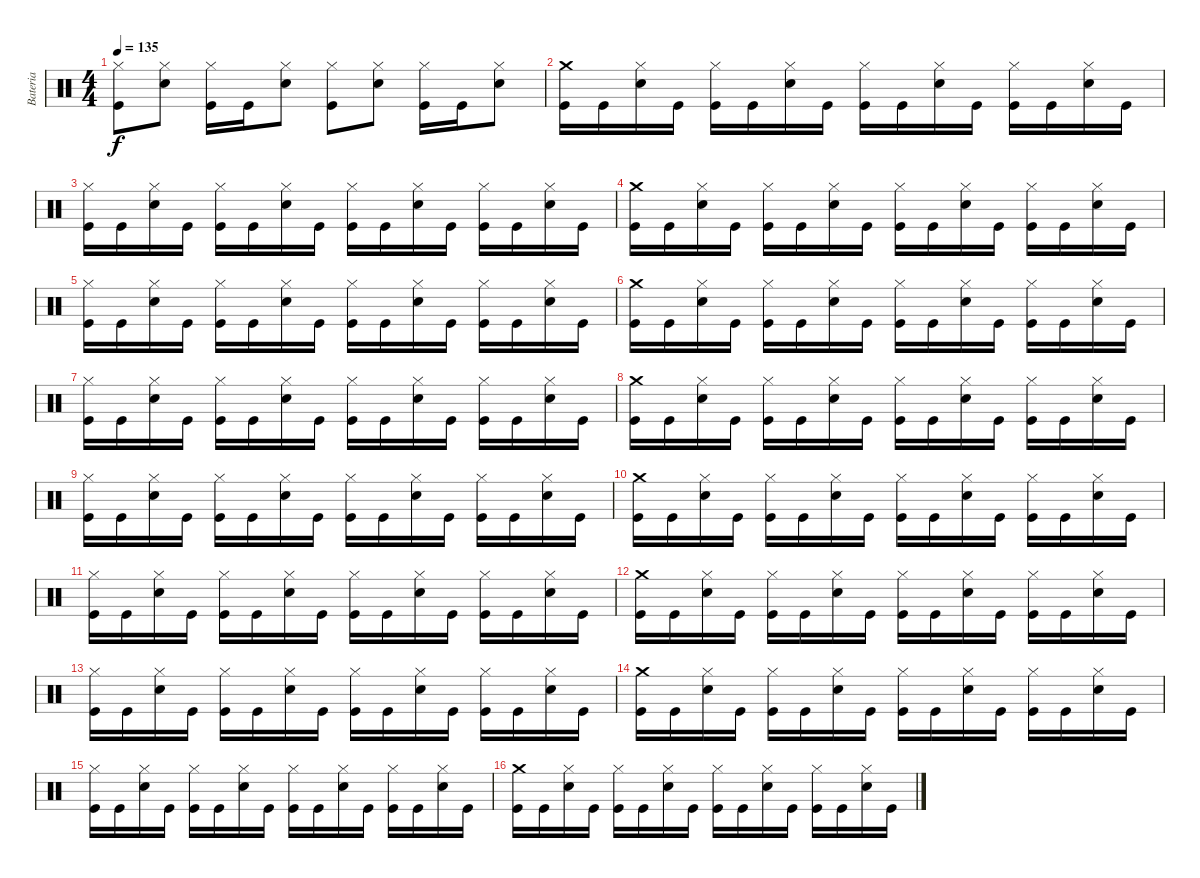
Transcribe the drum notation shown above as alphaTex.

\track ("Bateria" "Bateria") {instrument percussion}
\staff {score}
\articulation defaults
\ts (4 4)
\tempo 135
\clef neutral
\ks c
("Kick (hit)" "Hi-Hat (closed)").8{dy f} ("Snare (hit) 2" "Hi-Hat (closed)").8 ("Kick (hit)" "Hi-Hat (closed)").16 "Kick (hit)".16 ("Snare (hit) 2" "Hi-Hat (closed)").8 ("Kick (hit)" "Hi-Hat (closed)").8 ("Snare (hit) 2" "Hi-Hat (closed)").8 ("Kick (hit)" "Hi-Hat (closed)").16 "Kick (hit)".16 ("Snare (hit) 2" "Hi-Hat (closed)").8 |
("Kick (hit)" "Crash medium (hit)").16 "Kick (hit)".16 ("Snare (hit) 2" "Hi-Hat (closed)").16 "Kick (hit)".16 ("Kick (hit)" "Hi-Hat (closed)").16 "Kick (hit)".16 ("Snare (hit) 2" "Hi-Hat (closed)").16 "Kick (hit)".16 ("Kick (hit)" "Hi-Hat (closed)").16 "Kick (hit)".16 ("Snare (hit) 2" "Hi-Hat (closed)").16 "Kick (hit)".16 ("Kick (hit)" "Hi-Hat (closed)").16 "Kick (hit)".16 ("Snare (hit) 2" "Hi-Hat (closed)").16 "Kick (hit)".16 |
("Kick (hit)" "Hi-Hat (closed)").16 "Kick (hit)".16 ("Snare (hit) 2" "Hi-Hat (closed)").16 "Kick (hit)".16 ("Kick (hit)" "Hi-Hat (closed)").16 "Kick (hit)".16 ("Snare (hit) 2" "Hi-Hat (closed)").16 "Kick (hit)".16 ("Kick (hit)" "Hi-Hat (closed)").16 "Kick (hit)".16 ("Snare (hit) 2" "Hi-Hat (closed)").16 "Kick (hit)".16 ("Kick (hit)" "Hi-Hat (closed)").16 "Kick (hit)".16 ("Snare (hit) 2" "Hi-Hat (closed)").16 "Kick (hit)".16 |
("Kick (hit)" "Crash medium (hit)").16 "Kick (hit)".16 ("Snare (hit) 2" "Hi-Hat (closed)").16 "Kick (hit)".16 ("Kick (hit)" "Hi-Hat (closed)").16 "Kick (hit)".16 ("Snare (hit) 2" "Hi-Hat (closed)").16 "Kick (hit)".16 ("Kick (hit)" "Hi-Hat (closed)").16 "Kick (hit)".16 ("Snare (hit) 2" "Hi-Hat (closed)").16 "Kick (hit)".16 ("Kick (hit)" "Hi-Hat (closed)").16 "Kick (hit)".16 ("Snare (hit) 2" "Hi-Hat (closed)").16 "Kick (hit)".16 |
("Kick (hit)" "Hi-Hat (closed)").16 "Kick (hit)".16 ("Snare (hit) 2" "Hi-Hat (closed)").16 "Kick (hit)".16 ("Kick (hit)" "Hi-Hat (closed)").16 "Kick (hit)".16 ("Snare (hit) 2" "Hi-Hat (closed)").16 "Kick (hit)".16 ("Kick (hit)" "Hi-Hat (closed)").16 "Kick (hit)".16 ("Snare (hit) 2" "Hi-Hat (closed)").16 "Kick (hit)".16 ("Kick (hit)" "Hi-Hat (closed)").16 "Kick (hit)".16 ("Snare (hit) 2" "Hi-Hat (closed)").16 "Kick (hit)".16 |
("Kick (hit)" "Crash medium (hit)").16 "Kick (hit)".16 ("Snare (hit) 2" "Hi-Hat (closed)").16 "Kick (hit)".16 ("Kick (hit)" "Hi-Hat (closed)").16 "Kick (hit)".16 ("Snare (hit) 2" "Hi-Hat (closed)").16 "Kick (hit)".16 ("Kick (hit)" "Hi-Hat (closed)").16 "Kick (hit)".16 ("Snare (hit) 2" "Hi-Hat (closed)").16 "Kick (hit)".16 ("Kick (hit)" "Hi-Hat (closed)").16 "Kick (hit)".16 ("Snare (hit) 2" "Hi-Hat (closed)").16 "Kick (hit)".16 |
("Kick (hit)" "Hi-Hat (closed)").16 "Kick (hit)".16 ("Snare (hit) 2" "Hi-Hat (closed)").16 "Kick (hit)".16 ("Kick (hit)" "Hi-Hat (closed)").16 "Kick (hit)".16 ("Snare (hit) 2" "Hi-Hat (closed)").16 "Kick (hit)".16 ("Kick (hit)" "Hi-Hat (closed)").16 "Kick (hit)".16 ("Snare (hit) 2" "Hi-Hat (closed)").16 "Kick (hit)".16 ("Kick (hit)" "Hi-Hat (closed)").16 "Kick (hit)".16 ("Snare (hit) 2" "Hi-Hat (closed)").16 "Kick (hit)".16 |
("Kick (hit)" "Crash medium (hit)").16 "Kick (hit)".16 ("Snare (hit) 2" "Hi-Hat (closed)").16 "Kick (hit)".16 ("Kick (hit)" "Hi-Hat (closed)").16 "Kick (hit)".16 ("Snare (hit) 2" "Hi-Hat (closed)").16 "Kick (hit)".16 ("Kick (hit)" "Hi-Hat (closed)").16 "Kick (hit)".16 ("Snare (hit) 2" "Hi-Hat (closed)").16 "Kick (hit)".16 ("Kick (hit)" "Hi-Hat (closed)").16 "Kick (hit)".16 ("Snare (hit) 2" "Hi-Hat (closed)").16 "Kick (hit)".16 |
("Kick (hit)" "Hi-Hat (closed)").16 "Kick (hit)".16 ("Snare (hit) 2" "Hi-Hat (closed)").16 "Kick (hit)".16 ("Kick (hit)" "Hi-Hat (closed)").16 "Kick (hit)".16 ("Snare (hit) 2" "Hi-Hat (closed)").16 "Kick (hit)".16 ("Kick (hit)" "Hi-Hat (closed)").16 "Kick (hit)".16 ("Snare (hit) 2" "Hi-Hat (closed)").16 "Kick (hit)".16 ("Kick (hit)" "Hi-Hat (closed)").16 "Kick (hit)".16 ("Snare (hit) 2" "Hi-Hat (closed)").16 "Kick (hit)".16 |
("Kick (hit)" "Crash medium (hit)").16 "Kick (hit)".16 ("Snare (hit) 2" "Hi-Hat (closed)").16 "Kick (hit)".16 ("Kick (hit)" "Hi-Hat (closed)").16 "Kick (hit)".16 ("Snare (hit) 2" "Hi-Hat (closed)").16 "Kick (hit)".16 ("Kick (hit)" "Hi-Hat (closed)").16 "Kick (hit)".16 ("Snare (hit) 2" "Hi-Hat (closed)").16 "Kick (hit)".16 ("Kick (hit)" "Hi-Hat (closed)").16 "Kick (hit)".16 ("Snare (hit) 2" "Hi-Hat (closed)").16 "Kick (hit)".16 |
("Kick (hit)" "Hi-Hat (closed)").16 "Kick (hit)".16 ("Snare (hit) 2" "Hi-Hat (closed)").16 "Kick (hit)".16 ("Kick (hit)" "Hi-Hat (closed)").16 "Kick (hit)".16 ("Snare (hit) 2" "Hi-Hat (closed)").16 "Kick (hit)".16 ("Kick (hit)" "Hi-Hat (closed)").16 "Kick (hit)".16 ("Snare (hit) 2" "Hi-Hat (closed)").16 "Kick (hit)".16 ("Kick (hit)" "Hi-Hat (closed)").16 "Kick (hit)".16 ("Snare (hit) 2" "Hi-Hat (closed)").16 "Kick (hit)".16 |
("Kick (hit)" "Crash medium (hit)").16 "Kick (hit)".16 ("Snare (hit) 2" "Hi-Hat (closed)").16 "Kick (hit)".16 ("Kick (hit)" "Hi-Hat (closed)").16 "Kick (hit)".16 ("Snare (hit) 2" "Hi-Hat (closed)").16 "Kick (hit)".16 ("Kick (hit)" "Hi-Hat (closed)").16 "Kick (hit)".16 ("Snare (hit) 2" "Hi-Hat (closed)").16 "Kick (hit)".16 ("Kick (hit)" "Hi-Hat (closed)").16 "Kick (hit)".16 ("Snare (hit) 2" "Hi-Hat (closed)").16 "Kick (hit)".16 |
("Kick (hit)" "Hi-Hat (closed)").16 "Kick (hit)".16 ("Snare (hit) 2" "Hi-Hat (closed)").16 "Kick (hit)".16 ("Kick (hit)" "Hi-Hat (closed)").16 "Kick (hit)".16 ("Snare (hit) 2" "Hi-Hat (closed)").16 "Kick (hit)".16 ("Kick (hit)" "Hi-Hat (closed)").16 "Kick (hit)".16 ("Snare (hit) 2" "Hi-Hat (closed)").16 "Kick (hit)".16 ("Kick (hit)" "Hi-Hat (closed)").16 "Kick (hit)".16 ("Snare (hit) 2" "Hi-Hat (closed)").16 "Kick (hit)".16 |
("Kick (hit)" "Crash medium (hit)").16 "Kick (hit)".16 ("Snare (hit) 2" "Hi-Hat (closed)").16 "Kick (hit)".16 ("Kick (hit)" "Hi-Hat (closed)").16 "Kick (hit)".16 ("Snare (hit) 2" "Hi-Hat (closed)").16 "Kick (hit)".16 ("Kick (hit)" "Hi-Hat (closed)").16 "Kick (hit)".16 ("Snare (hit) 2" "Hi-Hat (closed)").16 "Kick (hit)".16 ("Kick (hit)" "Hi-Hat (closed)").16 "Kick (hit)".16 ("Snare (hit) 2" "Hi-Hat (closed)").16 "Kick (hit)".16 |
("Kick (hit)" "Hi-Hat (closed)").16 "Kick (hit)".16 ("Snare (hit) 2" "Hi-Hat (closed)").16 "Kick (hit)".16 ("Kick (hit)" "Hi-Hat (closed)").16 "Kick (hit)".16 ("Snare (hit) 2" "Hi-Hat (closed)").16 "Kick (hit)".16 ("Kick (hit)" "Hi-Hat (closed)").16 "Kick (hit)".16 ("Snare (hit) 2" "Hi-Hat (closed)").16 "Kick (hit)".16 ("Kick (hit)" "Hi-Hat (closed)").16 "Kick (hit)".16 ("Snare (hit) 2" "Hi-Hat (closed)").16 "Kick (hit)".16 |
("Kick (hit)" "Crash medium (hit)").16 "Kick (hit)".16 ("Snare (hit) 2" "Hi-Hat (closed)").16 "Kick (hit)".16 ("Kick (hit)" "Hi-Hat (closed)").16 "Kick (hit)".16 ("Snare (hit) 2" "Hi-Hat (closed)").16 "Kick (hit)".16 ("Kick (hit)" "Hi-Hat (closed)").16 "Kick (hit)".16 ("Snare (hit) 2" "Hi-Hat (closed)").16 "Kick (hit)".16 ("Kick (hit)" "Hi-Hat (closed)").16 "Kick (hit)".16 ("Snare (hit) 2" "Hi-Hat (closed)").16 "Kick (hit)".16
